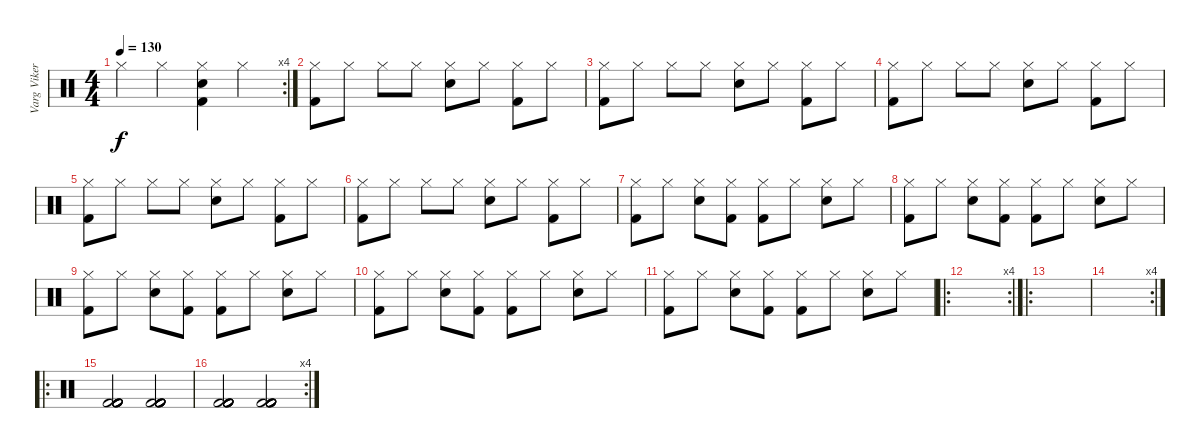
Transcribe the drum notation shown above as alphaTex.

\track ("Varg Vikernes (Drums)" "Varg Viker") {instrument percussion}
\staff {score}
\articulation defaults
\rc 4
\ts (4 4)
\tempo 130
\clef neutral
\ks c "Hi-Hat (closed)".4{dy f} "Hi-Hat (closed)".4
("Hi-Hat (closed)" "Kick (hit) 2" "Electric Snare (hit)").4 "Hi-Hat (closed)".4 |
("Hi-Hat (closed)" "Kick (hit) 2").8 "Hi-Hat (closed)".8 "Hi-Hat (closed)".8 "Hi-Hat (closed)".8 ("Hi-Hat (closed)" "Electric Snare (hit)").8 "Hi-Hat (closed)".8 ("Hi-Hat (closed)" "Kick (hit) 2").8 "Hi-Hat (closed)".8 |
("Hi-Hat (closed)" "Kick (hit) 2").8 "Hi-Hat (closed)".8 "Hi-Hat (closed)".8 "Hi-Hat (closed)".8 ("Hi-Hat (closed)" "Electric Snare (hit)").8 "Hi-Hat (closed)".8 ("Hi-Hat (closed)" "Kick (hit) 2").8 "Hi-Hat (closed)".8 |
("Hi-Hat (closed)" "Kick (hit) 2").8 "Hi-Hat (closed)".8 "Hi-Hat (closed)".8 "Hi-Hat (closed)".8 ("Hi-Hat (closed)" "Electric Snare (hit)").8 "Hi-Hat (closed)".8 ("Hi-Hat (closed)" "Kick (hit) 2").8 "Hi-Hat (closed)".8 |
("Hi-Hat (closed)" "Kick (hit) 2").8 "Hi-Hat (closed)".8 "Hi-Hat (closed)".8 "Hi-Hat (closed)".8 ("Hi-Hat (closed)" "Electric Snare (hit)").8 "Hi-Hat (closed)".8 ("Hi-Hat (closed)" "Kick (hit) 2").8 "Hi-Hat (closed)".8 |
("Hi-Hat (closed)" "Kick (hit) 2").8 "Hi-Hat (closed)".8 "Hi-Hat (closed)".8 "Hi-Hat (closed)".8 ("Hi-Hat (closed)" "Electric Snare (hit)").8 "Hi-Hat (closed)".8 ("Hi-Hat (closed)" "Kick (hit) 2").8 "Hi-Hat (closed)".8 |
("Hi-Hat (closed)" "Kick (hit) 2").8 "Hi-Hat (closed)".8 ("Hi-Hat (closed)" "Electric Snare (hit)").8 ("Hi-Hat (closed)" "Kick (hit) 2").8 ("Hi-Hat (closed)" "Kick (hit) 2").8 "Hi-Hat (closed)".8 ("Hi-Hat (closed)" "Electric Snare (hit)").8 "Hi-Hat (closed)".8 |
("Hi-Hat (closed)" "Kick (hit) 2").8 "Hi-Hat (closed)".8 ("Hi-Hat (closed)" "Electric Snare (hit)").8 ("Hi-Hat (closed)" "Kick (hit) 2").8 ("Hi-Hat (closed)" "Kick (hit) 2").8 "Hi-Hat (closed)".8 ("Hi-Hat (closed)" "Electric Snare (hit)").8 "Hi-Hat (closed)".8 |
("Hi-Hat (closed)" "Kick (hit) 2").8 "Hi-Hat (closed)".8 ("Hi-Hat (closed)" "Electric Snare (hit)").8 ("Hi-Hat (closed)" "Kick (hit) 2").8 ("Hi-Hat (closed)" "Kick (hit) 2").8 "Hi-Hat (closed)".8 ("Hi-Hat (closed)" "Electric Snare (hit)").8 "Hi-Hat (closed)".8 |
("Hi-Hat (closed)" "Kick (hit) 2").8 "Hi-Hat (closed)".8 ("Hi-Hat (closed)" "Electric Snare (hit)").8 ("Hi-Hat (closed)" "Kick (hit) 2").8 ("Hi-Hat (closed)" "Kick (hit) 2").8 "Hi-Hat (closed)".8 ("Hi-Hat (closed)" "Electric Snare (hit)").8 "Hi-Hat (closed)".8 |
("Hi-Hat (closed)" "Kick (hit) 2").8 "Hi-Hat (closed)".8 ("Hi-Hat (closed)" "Electric Snare (hit)").8 ("Hi-Hat (closed)" "Kick (hit) 2").8 ("Hi-Hat (closed)" "Kick (hit) 2").8 "Hi-Hat (closed)".8 ("Hi-Hat (closed)" "Electric Snare (hit)").8 "Hi-Hat (closed)".8 |
\ro
\rc 4
|
\ro
|
\rc 4
|
\ro
("Kick (hit) 2" "Kick (hit) 2" "Kick (hit) 2" "Kick (hit) 2" "Kick (hit) 2" "Kick (hit) 2").2 ("Kick (hit) 2" "Kick (hit) 2" "Kick (hit) 2" "Kick (hit) 2" "Kick (hit) 2" "Kick (hit) 2").2 |
\rc 4
("Kick (hit) 2" "Kick (hit) 2" "Kick (hit) 2" "Kick (hit) 2" "Kick (hit) 2" "Kick (hit) 2").2 ("Kick (hit) 2" "Kick (hit) 2" "Kick (hit) 2" "Kick (hit) 2" "Kick (hit) 2" "Kick (hit) 2").2
